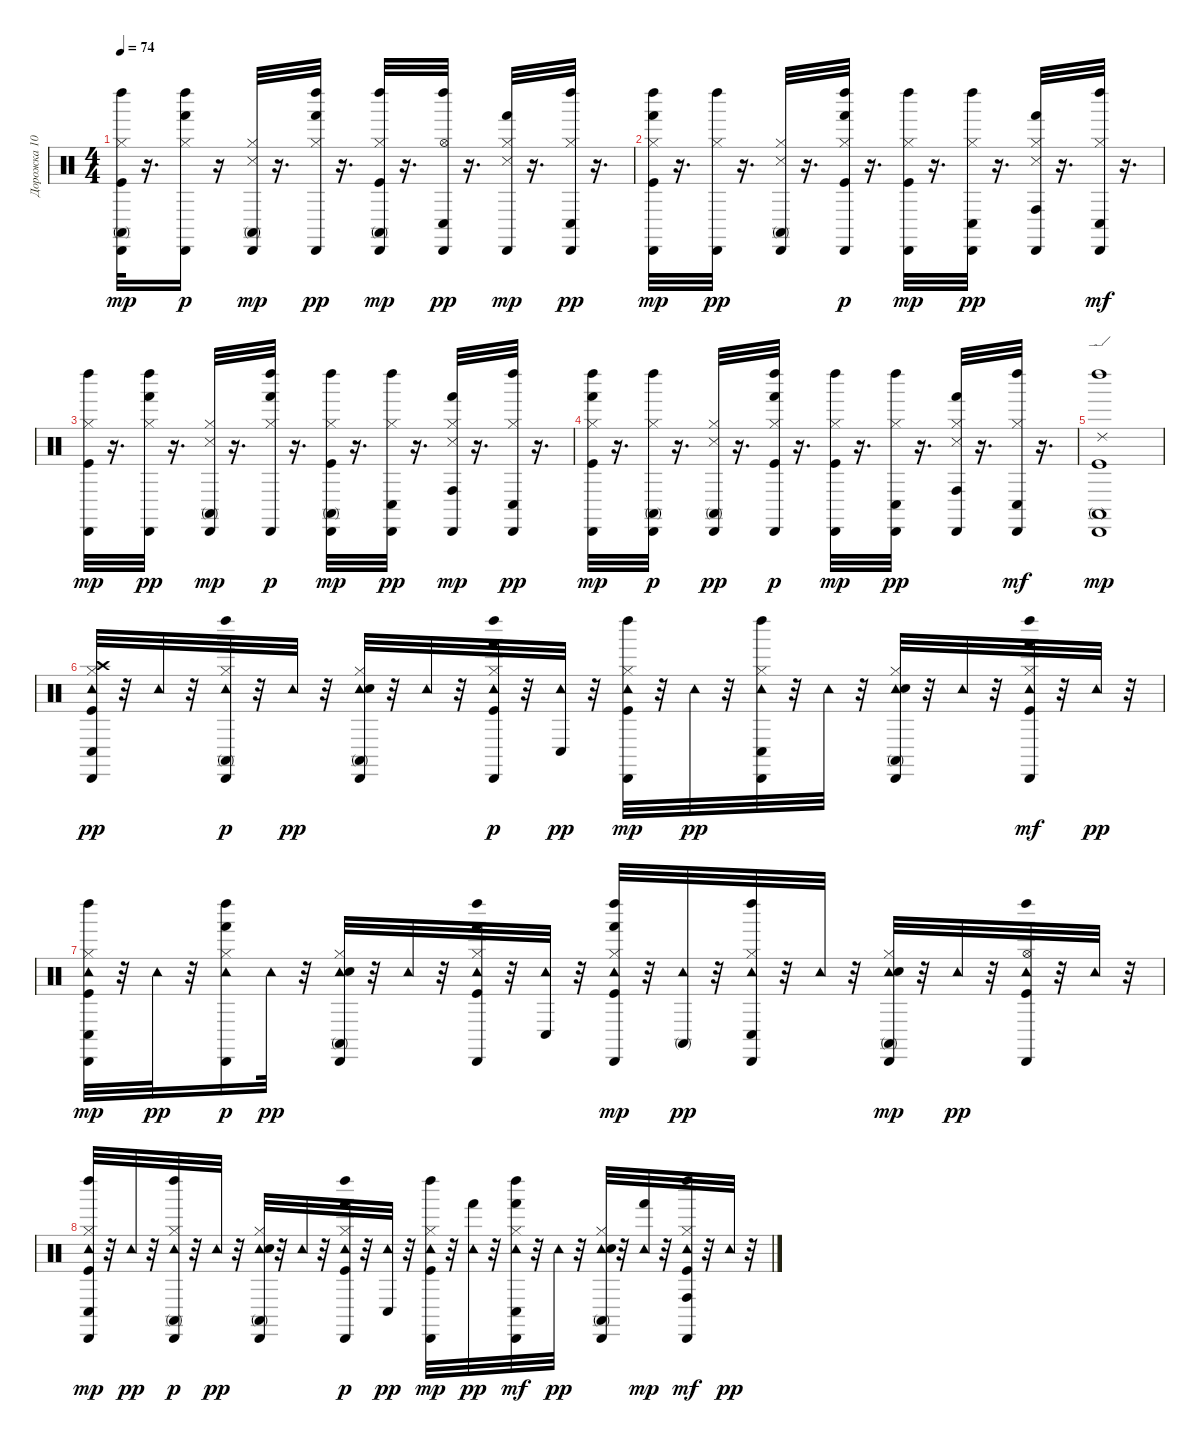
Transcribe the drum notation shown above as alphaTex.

\track ("Дорожка 10" "Дорожка 10") {instrument percussion}
\staff {score}
\articulation defaults
\ts (4 4)
\tempo 74
\clef neutral
\ks c
("Kick (hit)" "Conga high (mute)" "Hi-Hat (closed)" "Cabasa (hit)" "Left Maraca (hit)").32{dy mp} r.16{d} ("Hi-Hat (closed)" "Cabasa (hit)" "Left Maraca (hit)" "Hand (hit)").16{dy p} r.16 ("Hi-Hat (closed)" "Conga high (mute)" "Cabasa (hit)" "Snare (side stick) 3").32{dy mp} r.16{d} ("Hi-Hat (closed)" "Cabasa (hit)" "Left Maraca (hit)" "Hand (hit)").32{dy pp} r.16{d} ("Hi-Hat (closed)" "Kick (hit)" "Conga high (mute)" "Cabasa (hit)" "Left Maraca (hit)").32{dy mp} r.16{d} ("Hi-Hat (open)" "Conga low (hit)" "Cabasa (hit)" "Left Maraca (hit)").32{dy pp} r.16{d} ("Hi-Hat (closed)" "Cabasa (hit)" "Snare (side stick) 3" "Hand (hit)").32{dy mp} r.16{d} ("Hi-Hat (closed)" "Conga low (hit)" "Cabasa (hit)" "Left Maraca (hit)").32{dy pp} r.16{d} |
("Hi-Hat (closed)" "Hand (hit)" "Kick (hit)" "Cabasa (hit)" "Left Maraca (hit)").32{dy mp} r.16{d} ("Hi-Hat (closed)" "Cabasa (hit)" "Left Maraca (hit)").32{dy pp} r.16{d} ("Snare (side stick) 3" "Hi-Hat (closed)" "Conga high (mute)" "Cabasa (hit)").32 r.16{d} ("Hi-Hat (closed)" "Cabasa (hit)" "Left Maraca (hit)" "Hand (hit)" "Kick (hit)").32{dy p} r.16{d} ("Hi-Hat (closed)" "Cabasa (hit)" "Left Maraca (hit)" "Kick (hit)").32{dy mp} r.16{d} ("Hi-Hat (closed)" "Conga low (hit)" "Cabasa (hit)" "Left Maraca (hit)").32{dy pp} r.16{d} ("Snare (side stick) 3" "Hi-Hat (closed)" "Conga high (hit)" "Hand (hit)" "Cabasa (hit)").32 r.16{d} ("Hi-Hat (closed)" "Cabasa (hit)" "Left Maraca (hit)" "Conga low (hit)").32{dy mf} r.16{d} |
("Kick (hit)" "Hi-Hat (closed)" "Cabasa (hit)" "Left Maraca (hit)").32{dy mp} r.16{d} ("Hi-Hat (closed)" "Hand (hit)" "Cabasa (hit)" "Left Maraca (hit)").32{dy pp} r.16{d} ("Hi-Hat (closed)" "Conga high (mute)" "Cabasa (hit)" "Snare (side stick) 3").32{dy mp} r.16{d} ("Hi-Hat (closed)" "Cabasa (hit)" "Left Maraca (hit)" "Hand (hit)").32{dy p} r.16{d} ("Hi-Hat (closed)" "Kick (hit)" "Conga high (mute)" "Cabasa (hit)" "Left Maraca (hit)").32{dy mp} r.16{d} ("Hi-Hat (closed)" "Conga low (hit)" "Cabasa (hit)" "Left Maraca (hit)").32{dy pp} r.16{d} ("Hi-Hat (closed)" "Hand (hit)" "Cabasa (hit)" "Snare (side stick) 3" "Conga high (hit)").32{dy mp} r.16{d} ("Hi-Hat (closed)" "Conga low (hit)" "Cabasa (hit)" "Left Maraca (hit)").32{dy pp} r.16{d} |
("Hi-Hat (closed)" "Kick (hit)" "Hand (hit)" "Cabasa (hit)" "Left Maraca (hit)").32{dy mp} r.16{d} ("Hi-Hat (closed)" "Cabasa (hit)" "Left Maraca (hit)" "Conga high (mute)").32{dy p} r.16{d} ("Hi-Hat (closed)" "Snare (side stick) 3" "Conga high (mute)" "Cabasa (hit)").32{dy pp} r.16{d} ("Hi-Hat (closed)" "Cabasa (hit)" "Left Maraca (hit)" "Kick (hit)" "Hand (hit)").32{dy p} r.16{d} ("Hi-Hat (closed)" "Cabasa (hit)" "Left Maraca (hit)" "Kick (hit)").32{dy mp} r.16{d} ("Hi-Hat (closed)" "Conga low (hit)" "Cabasa (hit)" "Left Maraca (hit)").32{dy pp} r.16{d} ("Hi-Hat (closed)" "Snare (side stick) 3" "Conga high (hit)" "Hand (hit)" "Cabasa (hit)").32 r.16{d} ("Hi-Hat (closed)" "Cabasa (hit)" "Left Maraca (hit)" "Conga low (hit)").32{dy mf} r.16{d} |
("Ride (edge) 2" "Kick (hit)" "Conga high (mute)" "Cabasa (hit)" "Left Maraca (hit)").1{dy mp} |
("Conga low (hit)" "Crash high (hit)" "Tambourine (hit)" "Kick (hit)" "Hi-Hat (closed)" "Cabasa (hit)").32{dy pp} r.32 "Tambourine (hit)".32 r.32 ("Hi-Hat (closed)" "Tambourine (hit)" "Cabasa (hit)" "Left Maraca (hit)" "Conga high (mute)").32{dy p} r.32 "Tambourine (hit)".32{dy pp} r.32 ("Tambourine (hit)" "Electric Snare (hit)" "Hi-Hat (closed)" "Conga high (mute)" "Cabasa (hit)").32 r.32 "Tambourine (hit)".32 r.32 ("Kick (hit)" "Hi-Hat (closed)" "Tambourine (hit)" "Cabasa (hit)" "Left Maraca (hit)" "Hand (hit)").32{dy p} r.32 ("Conga low (hit)" "Tambourine (hit)").32{dy pp} r.32 ("Kick (hit)" "Hi-Hat (closed)" "Tambourine (hit)" "Cabasa (hit)" "Left Maraca (hit)").32{dy mp} r.32 "Tambourine (hit)".32{dy pp} r.32 ("Conga low (hit)" "Hi-Hat (closed)" "Tambourine (hit)" "Cabasa (hit)" "Left Maraca (hit)").32 r.32 "Tambourine (hit)".32 r.32 ("Conga high (mute)" "Tambourine (hit)" "Electric Snare (hit)" "Hi-Hat (closed)" "Cabasa (hit)").32 r.32 "Tambourine (hit)".32 r.32 ("Kick (hit)" "Hi-Hat (closed)" "Tambourine (hit)" "Cabasa (hit)" "Left Maraca (hit)" "Hand (hit)").32{dy mf} r.32 "Tambourine (hit)".32{dy pp} r.32 |
("Conga low (hit)" "Tambourine (hit)" "Kick (hit)" "Hi-Hat (closed)" "Cabasa (hit)" "Left Maraca (hit)").32{dy mp} r.32 "Tambourine (hit)".32{dy pp} r.32 ("Hi-Hat (closed)" "Tambourine (hit)" "Cabasa (hit)" "Left Maraca (hit)" "Hand (hit)").16{dy p} "Tambourine (hit)".32{dy pp} r.32 ("Tambourine (hit)" "Electric Snare (hit)" "Hi-Hat (closed)" "Conga high (mute)" "Cabasa (hit)").32 r.32 "Tambourine (hit)".32 r.32 ("Kick (hit)" "Hi-Hat (closed)" "Tambourine (hit)" "Cabasa (hit)" "Left Maraca (hit)" "Hand (hit)").32 r.32 ("Conga low (hit)" "Tambourine (hit)").32 r.32 ("Hand (hit)" "Kick (hit)" "Hi-Hat (closed)" "Tambourine (hit)" "Cabasa (hit)" "Left Maraca (hit)").32{dy mp} r.32 ("Tambourine (hit)" "Conga high (mute)").32{dy pp} r.32 ("Conga low (hit)" "Hi-Hat (closed)" "Tambourine (hit)" "Cabasa (hit)" "Left Maraca (hit)").32 r.32 "Tambourine (hit)".32 r.32 ("Tambourine (hit)" "Electric Snare (hit)" "Hi-Hat (closed)" "Cabasa (hit)" "Conga high (mute)").32{dy mp} r.32 "Tambourine (hit)".32{dy pp} r.32 ("Kick (hit)" "Hi-Hat (open)" "Tambourine (hit)" "Cabasa (hit)" "Left Maraca (hit)").32 r.32 "Tambourine (hit)".32 r.32 |
("Conga low (hit)" "Tambourine (hit)" "Kick (hit)" "Hi-Hat (closed)" "Cabasa (hit)" "Left Maraca (hit)").32{dy mp} r.32 "Tambourine (hit)".32{dy pp} r.32 ("Hi-Hat (closed)" "Tambourine (hit)" "Cabasa (hit)" "Left Maraca (hit)" "Conga high (mute)").32{dy p} r.32 "Tambourine (hit)".32{dy pp} r.32 ("Tambourine (hit)" "Electric Snare (hit)" "Hi-Hat (closed)" "Conga high (mute)" "Cabasa (hit)").32 r.32 "Tambourine (hit)".32 r.32 ("Kick (hit)" "Hi-Hat (closed)" "Tambourine (hit)" "Cabasa (hit)" "Left Maraca (hit)" "Hand (hit)").32{dy p} r.32 ("Conga low (hit)" "Tambourine (hit)").32{dy pp} r.32 ("Kick (hit)" "Hi-Hat (closed)" "Tambourine (hit)" "Cabasa (hit)" "Left Maraca (hit)").32{dy mp} r.32 ("Tambourine (hit)" "Hand (hit)").32{dy pp} r.32 ("Conga low (hit)" "Hi-Hat (closed)" "Tambourine (hit)" "Cabasa (hit)" "Left Maraca (hit)" "Hand (hit)").32{dy mf} r.32 "Tambourine (hit)".32{dy pp} r.32 ("Conga high (mute)" "Tambourine (hit)" "Electric Snare (hit)" "Hi-Hat (closed)" "Cabasa (hit)").32 r.32 ("Tambourine (hit)" "Hand (hit)").32{dy mp} r.32 ("Kick (hit)" "Hi-Hat (closed)" "Tambourine (hit)" "Cabasa (hit)" "Left Maraca (hit)" "Conga high (hit)").32{dy mf} r.32 "Tambourine (hit)".32{dy pp} r.32
